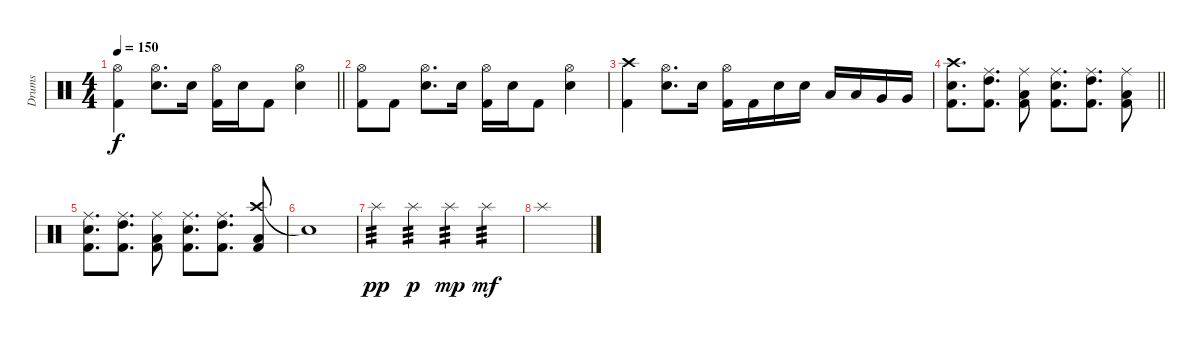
\track ("Drums" "Drums") {instrument percussion}
\staff {score}
\articulation defaults
\ts (4 4)
\tempo 150
\clef neutral
\barLineRight lightlight
\ks c
("Hi-Hat (open)" "Kick (hit) 2").4{dy f} ("Hi-Hat (open)" "Snare (hit) 2").8{d} "Snare (hit) 2".16 ("Hi-Hat (open)" "Kick (hit) 2").16 "Snare (hit) 2".16 "Kick (hit) 2".8 ("Hi-Hat (open)" "Snare (hit) 2").4 |
("Hi-Hat (open)" "Kick (hit) 2").8 "Kick (hit) 2".8 ("Hi-Hat (open)" "Snare (hit) 2").8{d} "Snare (hit) 2".16 ("Hi-Hat (open)" "Kick (hit) 2").16 "Snare (hit) 2".16 "Kick (hit) 2".8 ("Hi-Hat (open)" "Snare (hit) 2").4 |
("Crash high (hit)" "Kick (hit) 2").4 ("Hi-Hat (open)" "Snare (hit) 2").8{d} "Snare (hit) 2".16 ("Hi-Hat (open)" "Kick (hit) 2").16 "Kick (hit) 2".16 "Snare (hit) 2".16 "Snare (hit) 2".16 "Low Tom (hit)".16 "Low Tom (hit)".16 "Very Low Tom (hit)".16 "Very Low Tom (hit)".16 |
\barLineRight lightlight
("Crash high (hit)" "Snare (hit) 2" "Kick (hit) 2").8{d} ("Ride (middle)" "High Tom (hit)" "Kick (hit) 2").8{d} ("Ride (middle)" "Low Tom (hit)" "Kick (hit) 2").8 ("Ride (middle)" "Snare (hit) 2" "Kick (hit) 2").8{d} ("Ride (middle)" "High Tom (hit)" "Kick (hit) 2").8{d} ("Ride (middle)" "Low Tom (hit)" "Kick (hit) 2").8 |
("Ride (middle)" "Snare (hit) 2" "Kick (hit) 2").8{d} ("Ride (middle)" "High Tom (hit)" "Kick (hit) 2").8{d} ("Ride (middle)" "Low Tom (hit)" "Kick (hit) 2").8 ("Ride (middle)" "Snare (hit) 2" "Kick (hit) 2").8{d} ("Ride (middle)" "High Tom (hit)" "Kick (hit) 2").8{d} ("Crash high (hit)" "Low Tom (hit)" "Kick (hit) 2").8 |
"Snare (hit)"{t}.1 |
"Splash (hit)".4{tp 3 dy pp} "Splash (hit)".4{tp 3 dy p} "Splash (hit)".4{tp 3 dy mp} "Splash (hit)".4{tp 3 dy mf} |
"Splash (hit)".1
